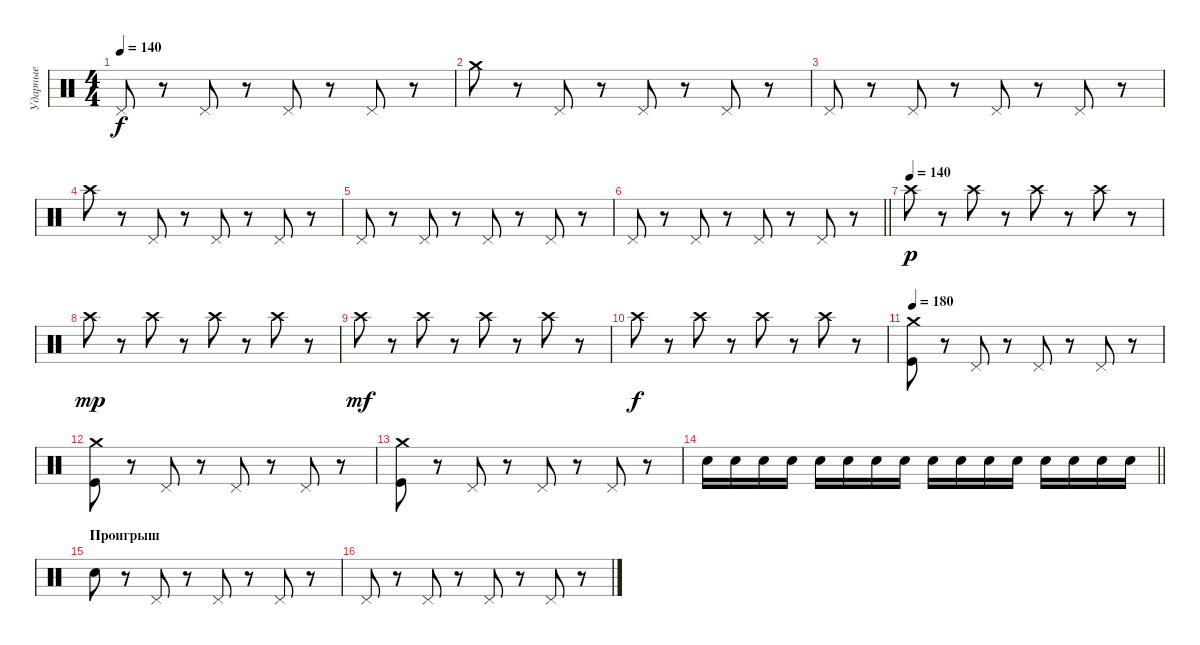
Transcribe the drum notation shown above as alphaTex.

\track ("Ударные" "Ударные") {instrument percussion}
\staff {score}
\articulation defaults
\ts (4 4)
\tempo 140
\clef neutral
\ks c "Pedal Hi-Hat (hit)".8{dy f}
r.8 "Pedal Hi-Hat (hit)".8 r.8 "Pedal Hi-Hat (hit)".8 r.8 "Pedal Hi-Hat (hit)".8 r.8 |
"Crash medium (hit)".8 r.8 "Pedal Hi-Hat (hit)".8 r.8 "Pedal Hi-Hat (hit)".8 r.8 "Pedal Hi-Hat (hit)".8 r.8 |
"Pedal Hi-Hat (hit)".8 r.8 "Pedal Hi-Hat (hit)".8 r.8 "Pedal Hi-Hat (hit)".8 r.8 "Pedal Hi-Hat (hit)".8 r.8 |
"Crash high (hit)".8 r.8 "Pedal Hi-Hat (hit)".8 r.8 "Pedal Hi-Hat (hit)".8 r.8 "Pedal Hi-Hat (hit)".8 r.8 |
"Pedal Hi-Hat (hit)".8 r.8 "Pedal Hi-Hat (hit)".8 r.8 "Pedal Hi-Hat (hit)".8 r.8 "Pedal Hi-Hat (hit)".8 r.8 |
\barLineRight lightlight "Pedal Hi-Hat (hit)".8
r.8 "Pedal Hi-Hat (hit)".8 r.8 "Pedal Hi-Hat (hit)".8 r.8 "Pedal Hi-Hat (hit)".8 r.8 |
\section ("" " ")
\tempo (140)
"Crash high (hit)".8{dy p} r.8 "Crash high (hit)".8 r.8 "Crash high (hit)".8 r.8 "Crash high (hit)".8 r.8 |
"Crash high (hit)".8{dy mp} r.8 "Crash high (hit)".8 r.8 "Crash high (hit)".8 r.8 "Crash high (hit)".8 r.8 |
"Crash high (hit)".8{dy mf} r.8 "Crash high (hit)".8 r.8 "Crash high (hit)".8 r.8 "Crash high (hit)".8 r.8 |
"Crash high (hit)".8{dy f} r.8 "Crash high (hit)".8 r.8 "Crash high (hit)".8 r.8 "Crash high (hit)".8 r.8 |
\tempo 180
("Crash medium (hit)" "Kick (hit)").8 r.8 "Pedal Hi-Hat (hit)".8 r.8 "Pedal Hi-Hat (hit)".8 r.8 "Pedal Hi-Hat (hit)".8 r.8 |
("Crash medium (hit)" "Kick (hit)").8 r.8 "Pedal Hi-Hat (hit)".8 r.8 "Pedal Hi-Hat (hit)".8 r.8 "Pedal Hi-Hat (hit)".8 r.8 |
("Crash medium (hit)" "Kick (hit)").8 r.8 "Pedal Hi-Hat (hit)".8 r.8 "Pedal Hi-Hat (hit)".8 r.8 "Pedal Hi-Hat (hit)".8 r.8 |
\barLineRight lightlight "Electric Snare (hit)".16 "Electric Snare (hit)".16 "Electric Snare (hit)".16 "Electric Snare (hit)".16 "Electric Snare (hit)".16 "Electric Snare (hit)".16 "Electric Snare (hit)".16 "Electric Snare (hit)".16 "Electric Snare (hit)".16 "Electric Snare (hit)".16 "Electric Snare (hit)".16 "Electric Snare (hit)".16 "Electric Snare (hit)".16 "Electric Snare (hit)".16 "Electric Snare (hit)".16 "Electric Snare (hit)".16
|
\section ("" "Проигрыш")
"Electric Snare (hit)".8 r.8 "Pedal Hi-Hat (hit)".8 r.8 "Pedal Hi-Hat (hit)".8 r.8 "Pedal Hi-Hat (hit)".8 r.8 |
"Pedal Hi-Hat (hit)".8 r.8 "Pedal Hi-Hat (hit)".8 r.8 "Pedal Hi-Hat (hit)".8 r.8 "Pedal Hi-Hat (hit)".8 r.8
